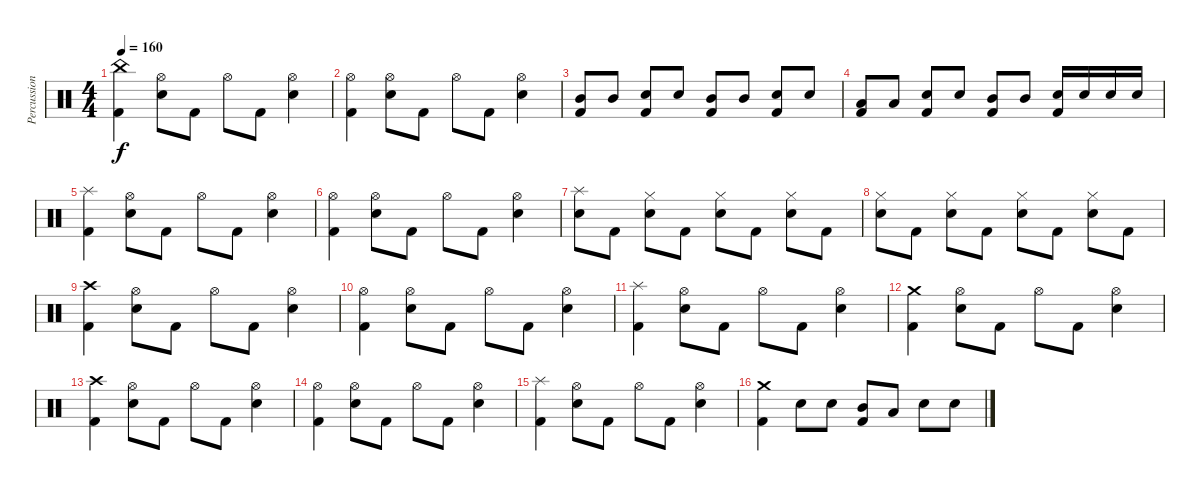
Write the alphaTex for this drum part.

\track ("Percussion" "Percussion") {instrument percussion}
\staff {score}
\articulation defaults
\ts (4 4)
\tempo 160
\clef neutral
\ks c
("China (hit)" "Kick (hit) 2").4{dy f} ("Hi-Hat (open)" "Snare (hit) 2").8 "Kick (hit) 2".8 "Hi-Hat (open)".8 "Kick (hit) 2".8 ("Hi-Hat (open)" "Snare (hit) 2").4 |
("Hi-Hat (open)" "Kick (hit) 2").4 ("Hi-Hat (open)" "Snare (hit) 2").8 "Kick (hit) 2".8 "Hi-Hat (open)".8 "Kick (hit) 2".8 ("Hi-Hat (open)" "Snare (hit) 2").4 |
("Mid Tom (hit)" "Kick (hit) 2").8 "Mid Tom (hit)".8 ("Snare (hit) 2" "Kick (hit) 2").8 "Snare (hit) 2".8 ("Mid Tom (hit)" "Kick (hit) 2").8 "Mid Tom (hit)".8 ("Snare (hit) 2" "Kick (hit) 2").8 "Snare (hit) 2".8 |
("Low Tom (hit)" "Kick (hit) 2").8 "Low Tom (hit)".8 ("Snare (hit) 2" "Kick (hit) 2").8 "Snare (hit) 2".8 ("Mid Tom (hit)" "Kick (hit) 2").8 "Mid Tom (hit)".8 ("Snare (hit) 2" "Kick (hit) 2").16 "Snare (hit) 2".16 "Snare (hit) 2".16 "Snare (hit) 2".16 |
("Splash (hit)" "Kick (hit) 2").4 ("Hi-Hat (open)" "Snare (hit) 2").8 "Kick (hit) 2".8 "Hi-Hat (open)".8 "Kick (hit) 2".8 ("Hi-Hat (open)" "Snare (hit) 2").4 |
("Hi-Hat (open)" "Kick (hit) 2").4 ("Hi-Hat (open)" "Snare (hit) 2").8 "Kick (hit) 2".8 "Hi-Hat (open)".8 "Kick (hit) 2".8 ("Hi-Hat (open)" "Snare (hit) 2").4 |
("Splash (hit)" "Snare (hit) 2").8 "Kick (hit) 2".8 ("Hi-Hat (closed)" "Snare (hit) 2").8 "Kick (hit) 2".8 ("Hi-Hat (closed)" "Snare (hit) 2").8 "Kick (hit) 2".8 ("Hi-Hat (closed)" "Snare (hit) 2").8 "Kick (hit) 2".8 |
("Hi-Hat (closed)" "Snare (hit) 2").8 "Kick (hit) 2".8 ("Hi-Hat (closed)" "Snare (hit) 2").8 "Kick (hit) 2".8 ("Hi-Hat (closed)" "Snare (hit) 2").8 "Kick (hit) 2".8 ("Hi-Hat (closed)" "Snare (hit) 2").8 "Kick (hit) 2".8 |
("Crash high (hit)" "Kick (hit) 2").4 ("Hi-Hat (open)" "Snare (hit) 2").8 "Kick (hit) 2".8 "Hi-Hat (open)".8 "Kick (hit) 2".8 ("Hi-Hat (open)" "Snare (hit) 2").4 |
("Hi-Hat (open)" "Kick (hit) 2").4 ("Hi-Hat (open)" "Snare (hit) 2").8 "Kick (hit) 2".8 "Hi-Hat (open)".8 "Kick (hit) 2".8 ("Hi-Hat (open)" "Snare (hit) 2").4 |
("Splash (hit)" "Kick (hit) 2").4 ("Hi-Hat (open)" "Snare (hit) 2").8 "Kick (hit) 2".8 "Hi-Hat (open)".8 "Kick (hit) 2".8 ("Hi-Hat (open)" "Snare (hit) 2").4 |
("Crash medium (hit)" "Kick (hit) 2").4 ("Hi-Hat (open)" "Snare (hit) 2").8 "Kick (hit) 2".8 "Hi-Hat (open)".8 "Kick (hit) 2".8 ("Hi-Hat (open)" "Snare (hit) 2").4 |
("Crash high (hit)" "Kick (hit) 2").4 ("Hi-Hat (open)" "Snare (hit) 2").8 "Kick (hit) 2".8 "Hi-Hat (open)".8 "Kick (hit) 2".8 ("Hi-Hat (open)" "Snare (hit) 2").4 |
("Hi-Hat (open)" "Kick (hit) 2").4 ("Hi-Hat (open)" "Snare (hit) 2").8 "Kick (hit) 2".8 "Hi-Hat (open)".8 "Kick (hit) 2".8 ("Hi-Hat (open)" "Snare (hit) 2").4 |
("Splash (hit)" "Kick (hit) 2").4 ("Hi-Hat (open)" "Snare (hit) 2").8 "Kick (hit) 2".8 "Hi-Hat (open)".8 "Kick (hit) 2".8 ("Hi-Hat (open)" "Snare (hit) 2").4 |
("Crash medium (hit)" "Kick (hit) 2").4 "Snare (hit) 2".8 "Snare (hit) 2".8 ("Mid Tom (hit)" "Kick (hit) 2").8 "Low Tom (hit)".8 "Snare (hit) 2".8 "Snare (hit) 2".8
